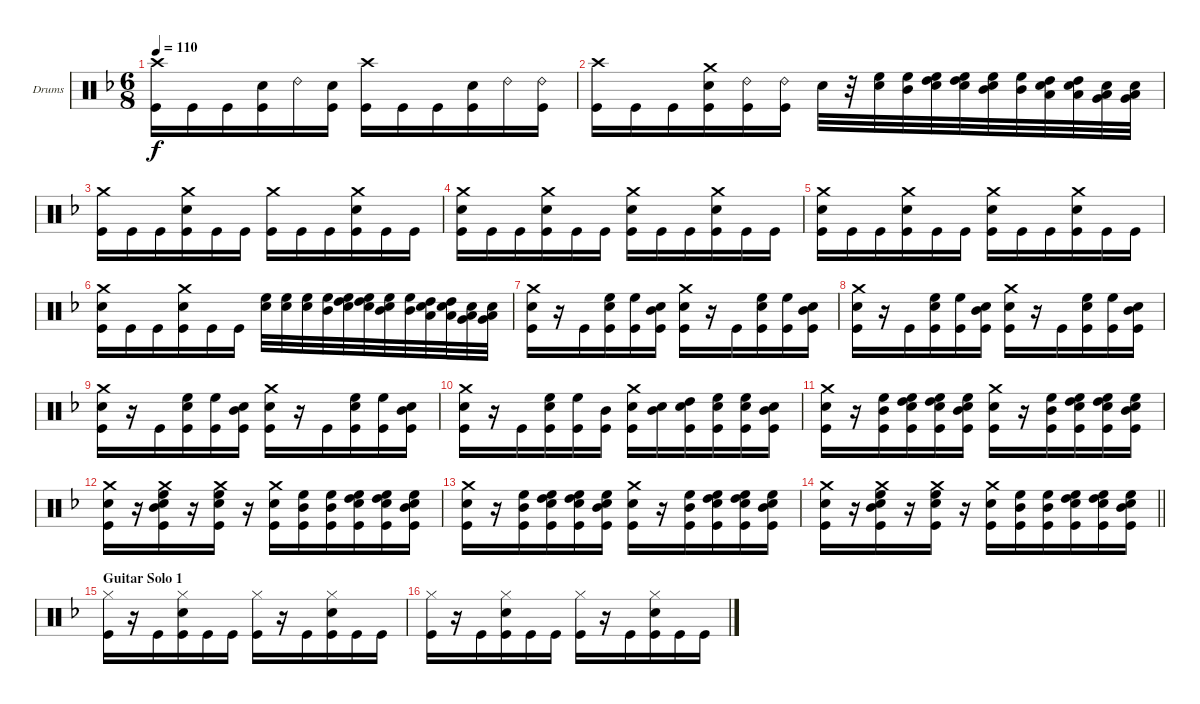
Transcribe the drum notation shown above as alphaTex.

\bracketExtendMode groupsimilarinstruments
\firstSystemTrackNameOrientation horizontal
\otherSystemsTrackNameOrientation horizontal
\track ("Drumkit" "Drums") {instrument percussion}
\staff {score}
\articulation defaults
\ts (6 8)
\tempo 110
\clef neutral
\ks f
("Crash high (hit)" "Kick (hit)").16{dy f} "Kick (hit)".16 "Kick (hit)".16 ("Snare (hit) 2" "Kick (hit)").16 "Ride (bell) 2".16 ("Snare (hit) 2" "Kick (hit)").16 ("Crash high (hit)" "Kick (hit)").16 "Kick (hit)".16 "Kick (hit)".16 ("Snare (hit) 2" "Kick (hit)").16 "Ride (bell) 2".16 ("Ride (bell) 2" "Kick (hit)").16 |
("Crash high (hit)" "Kick (hit)").16 "Kick (hit)".16 "Kick (hit)".16 ("Crash medium (hit)" "Snare (hit) 2" "Kick (hit)").16 ("Ride (bell) 2" "Kick (hit)").16 ("Ride (bell) 2" "Kick (hit)").16 "Snare (hit) 2".32 r.32 ("High Floor Tom (hit)" "Snare (hit) 2").32 ("High Floor Tom (hit)" "Mid Tom (hit)").32 ("High Floor Tom (hit)" "High Tom (hit)" "Snare (hit) 2").32 ("High Floor Tom (hit)" "High Tom (hit)" "Snare (hit) 2").32 ("High Floor Tom (hit)" "Mid Tom (hit)" "Snare (hit) 2").32 ("High Floor Tom (hit)" "Mid Tom (hit)").32 ("High Tom (hit)" "Low Tom (hit)" "Snare (hit) 2").32 ("High Tom (hit)" "Low Tom (hit)" "Snare (hit) 2").32 ("Low Tom (hit)" "Very Low Tom (hit)" "Snare (hit) 2").32 ("Low Tom (hit)" "Very Low Tom (hit)" "Snare (hit) 2").32 |
("Crash medium (hit)" "Kick (hit)").16 "Kick (hit)".16 "Kick (hit)".16 ("Crash medium (hit)" "Snare (hit) 2" "Kick (hit)").16 "Kick (hit)".16 "Kick (hit)".16 ("Crash medium (hit)" "Kick (hit)").16 "Kick (hit)".16 "Kick (hit)".16 ("Crash medium (hit)" "Snare (hit) 2" "Kick (hit)").16 "Kick (hit)".16 "Kick (hit)".16 |
("Crash medium (hit)" "Snare (hit) 2" "Kick (hit)").16 "Kick (hit)".16 "Kick (hit)".16 ("Crash medium (hit)" "Snare (hit) 2" "Kick (hit)").16 "Kick (hit)".16 "Kick (hit)".16 ("Crash medium (hit)" "Snare (hit) 2" "Kick (hit)").16 "Kick (hit)".16 "Kick (hit)".16 ("Crash medium (hit)" "Snare (hit) 2" "Kick (hit)").16 "Kick (hit)".16 "Kick (hit)".16 |
("Crash medium (hit)" "Snare (hit) 2" "Kick (hit)").16 "Kick (hit)".16 "Kick (hit)".16 ("Crash medium (hit)" "Snare (hit) 2" "Kick (hit)").16 "Kick (hit)".16 "Kick (hit)".16 ("Crash medium (hit)" "Snare (hit) 2" "Kick (hit)").16 "Kick (hit)".16 "Kick (hit)".16 ("Crash medium (hit)" "Snare (hit) 2" "Kick (hit)").16 "Kick (hit)".16 "Kick (hit)".16 |
("Crash medium (hit)" "Snare (hit) 2" "Kick (hit)").16 "Kick (hit)".16 "Kick (hit)".16 ("Crash medium (hit)" "Snare (hit) 2" "Kick (hit)").16 "Kick (hit)".16 "Kick (hit)".16 ("High Floor Tom (hit)" "Snare (hit) 2").32 ("High Floor Tom (hit)" "Snare (hit) 2").32 ("High Floor Tom (hit)" "Snare (hit) 2").32 ("High Floor Tom (hit)" "Mid Tom (hit)").32 ("High Floor Tom (hit)" "High Tom (hit)" "Snare (hit) 2").32 ("High Floor Tom (hit)" "High Tom (hit)" "Snare (hit) 2").32 ("High Floor Tom (hit)" "Mid Tom (hit)" "Snare (hit) 2").32 ("High Floor Tom (hit)" "Mid Tom (hit)").32 ("High Tom (hit)" "Low Tom (hit)" "Snare (hit) 2").32 ("High Tom (hit)" "Low Tom (hit)" "Snare (hit) 2").32 ("Low Tom (hit)" "Very Low Tom (hit)" "Snare (hit) 2").32 ("Low Tom (hit)" "Very Low Tom (hit)" "Snare (hit) 2").32 |
("Kick (hit)" "Snare (hit) 2" "Crash medium (hit)").16 r.16 "Kick (hit)".16 ("Kick (hit)" "High Floor Tom (hit)" "Snare (hit) 2").16 ("Kick (hit)" "High Floor Tom (hit)").16 ("Kick (hit)" "Snare (hit) 2" "Mid Tom (hit)").16 ("Kick (hit)" "Snare (hit) 2" "Crash medium (hit)").16 r.16 "Kick (hit)".16 ("Kick (hit)" "High Floor Tom (hit)" "Snare (hit) 2").16 ("Kick (hit)" "High Floor Tom (hit)").16 ("Kick (hit)" "Snare (hit) 2" "Mid Tom (hit)").16 |
("Kick (hit)" "Snare (hit) 2" "Crash medium (hit)").16 r.16 "Kick (hit)".16 ("Kick (hit)" "High Floor Tom (hit)" "Snare (hit) 2").16 ("Kick (hit)" "High Floor Tom (hit)").16 ("Kick (hit)" "Snare (hit) 2" "Mid Tom (hit)").16 ("Kick (hit)" "Snare (hit) 2" "Crash medium (hit)").16 r.16 "Kick (hit)".16 ("Kick (hit)" "High Floor Tom (hit)" "Snare (hit) 2").16 ("Kick (hit)" "High Floor Tom (hit)").16 ("Kick (hit)" "Snare (hit) 2" "Mid Tom (hit)").16 |
("Kick (hit)" "Snare (hit) 2" "Crash medium (hit)").16 r.16 "Kick (hit)".16 ("Kick (hit)" "High Floor Tom (hit)" "Snare (hit) 2").16 ("Kick (hit)" "High Floor Tom (hit)").16 ("Kick (hit)" "Snare (hit) 2" "Mid Tom (hit)").16 ("Kick (hit)" "Snare (hit) 2" "Crash medium (hit)").16 r.16 "Kick (hit)".16 ("Kick (hit)" "High Floor Tom (hit)" "Snare (hit) 2").16 ("Kick (hit)" "High Floor Tom (hit)").16 ("Kick (hit)" "Snare (hit) 2" "Mid Tom (hit)").16 |
("Kick (hit)" "Snare (hit) 2" "Crash medium (hit)").16 r.16 "Kick (hit)".16 ("Kick (hit)" "High Floor Tom (hit)" "Snare (hit) 2").16 ("Kick (hit)" "High Floor Tom (hit)").16 ("Kick (hit)" "Mid Tom (hit)").16 ("Kick (hit)" "Snare (hit) 2" "Crash medium (hit)").16 ("Mid Tom (hit)" "Snare (hit) 2").16 ("Kick (hit)" "High Tom (hit)" "Snare (hit) 2").16 ("Kick (hit)" "High Floor Tom (hit)" "Snare (hit) 2").16 ("Kick (hit)" "High Floor Tom (hit)" "Snare (hit) 2").16 ("Kick (hit)" "Mid Tom (hit)" "Snare (hit) 2").16 |
("Kick (hit)" "Snare (hit) 2" "Crash medium (hit)").16 r.16 ("Kick (hit)" "High Floor Tom (hit)" "Mid Tom (hit)").16 ("Kick (hit)" "High Floor Tom (hit)" "High Tom (hit)" "Snare (hit) 2").16 ("Kick (hit)" "High Floor Tom (hit)" "High Tom (hit)" "Snare (hit) 2").16 ("Kick (hit)" "High Floor Tom (hit)" "Mid Tom (hit)" "Snare (hit) 2").16 ("Kick (hit)" "Snare (hit) 2" "Crash medium (hit)").16 r.16 ("Kick (hit)" "High Floor Tom (hit)" "Mid Tom (hit)").16 ("Kick (hit)" "High Floor Tom (hit)" "High Tom (hit)" "Snare (hit) 2").16 ("Kick (hit)" "High Floor Tom (hit)" "High Tom (hit)" "Snare (hit) 2").16 ("Kick (hit)" "High Floor Tom (hit)" "Mid Tom (hit)" "Snare (hit) 2").16 |
("Kick (hit)" "Snare (hit) 2" "Crash medium (hit)").16 r.16 ("Kick (hit)" "High Floor Tom (hit)" "Mid Tom (hit)" "Snare (hit) 2" "Crash medium (hit)").16 r.16 ("Kick (hit)" "High Floor Tom (hit)" "Snare (hit) 2" "Crash medium (hit)").16 r.16 ("Kick (hit)" "Snare (hit) 2" "Crash medium (hit)").16 ("Kick (hit)" "High Floor Tom (hit)" "Mid Tom (hit)").16 ("Kick (hit)" "High Floor Tom (hit)" "Mid Tom (hit)").16 ("Kick (hit)" "High Floor Tom (hit)" "High Tom (hit)" "Snare (hit) 2").16 ("Kick (hit)" "High Floor Tom (hit)" "High Tom (hit)" "Snare (hit) 2").16 ("Kick (hit)" "High Floor Tom (hit)" "Mid Tom (hit)" "Snare (hit) 2").16 |
("Kick (hit)" "Snare (hit) 2" "Crash medium (hit)").16 r.16 ("Kick (hit)" "High Floor Tom (hit)" "Mid Tom (hit)").16 ("Kick (hit)" "High Floor Tom (hit)" "High Tom (hit)" "Snare (hit) 2").16 ("Kick (hit)" "High Floor Tom (hit)" "High Tom (hit)" "Snare (hit) 2").16 ("Kick (hit)" "High Floor Tom (hit)" "Mid Tom (hit)" "Snare (hit) 2").16 ("Kick (hit)" "Snare (hit) 2" "Crash medium (hit)").16 r.16 ("Kick (hit)" "High Floor Tom (hit)" "Mid Tom (hit)").16 ("Kick (hit)" "High Floor Tom (hit)" "High Tom (hit)" "Snare (hit) 2").16 ("Kick (hit)" "High Floor Tom (hit)" "High Tom (hit)" "Snare (hit) 2").16 ("Kick (hit)" "High Floor Tom (hit)" "Mid Tom (hit)" "Snare (hit) 2").16 |
\barLineRight lightlight
("Kick (hit)" "Snare (hit) 2" "Crash medium (hit)").16 r.16 ("Kick (hit)" "High Floor Tom (hit)" "Mid Tom (hit)" "Snare (hit) 2" "Crash medium (hit)").16 r.16 ("Kick (hit)" "High Floor Tom (hit)" "Snare (hit) 2" "Crash medium (hit)").16 r.16 ("Kick (hit)" "Snare (hit) 2" "Crash medium (hit)").16 ("Kick (hit)" "High Floor Tom (hit)" "Mid Tom (hit)").16 ("Kick (hit)" "High Floor Tom (hit)" "Mid Tom (hit)").16 ("Kick (hit)" "High Floor Tom (hit)" "High Tom (hit)" "Snare (hit) 2").16 ("Kick (hit)" "High Floor Tom (hit)" "High Tom (hit)" "Snare (hit) 2").16 ("Kick (hit)" "High Floor Tom (hit)" "Mid Tom (hit)" "Snare (hit) 2").16 |
\section ("" "Guitar Solo 1")
("Kick (hit)" "Hi-Hat (closed)").16 r.16 "Kick (hit)".16 ("Kick (hit)" "Snare (hit) 2" "Hi-Hat (closed)").16 "Kick (hit)".16 "Kick (hit)".16 ("Kick (hit)" "Hi-Hat (closed)").16 r.16 "Kick (hit)".16 ("Kick (hit)" "Snare (hit) 2" "Hi-Hat (closed)").16 "Kick (hit)".16 "Kick (hit)".16 |
("Kick (hit)" "Hi-Hat (closed)").16 r.16 "Kick (hit)".16 ("Kick (hit)" "Snare (hit) 2" "Hi-Hat (closed)").16 "Kick (hit)".16 "Kick (hit)".16 ("Kick (hit)" "Hi-Hat (closed)").16 r.16 "Kick (hit)".16 ("Kick (hit)" "Snare (hit) 2" "Hi-Hat (closed)").16 "Kick (hit)".16 "Kick (hit)".16
